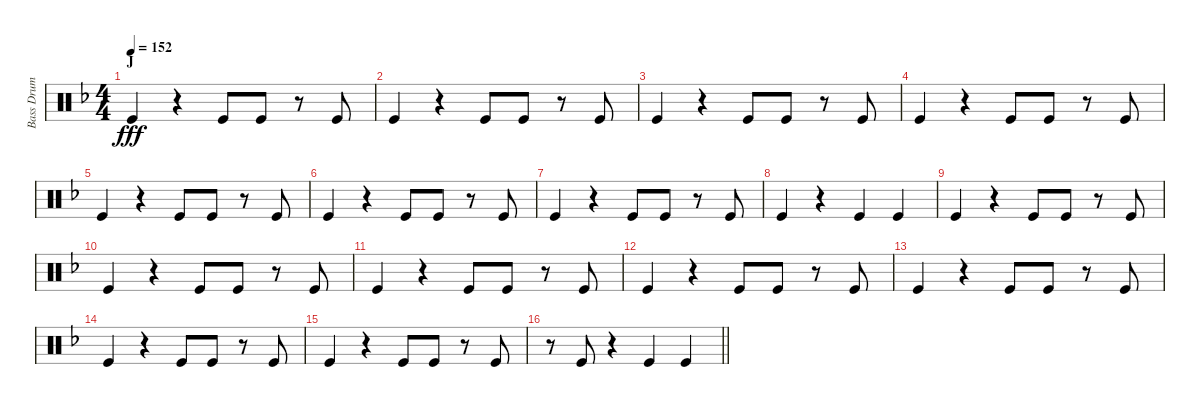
\track ("Bass Drum" "Bass Drum") {instrument percussion}
\staff {score}
\articulation defaults
\ts (4 4)
\section ("" "J")
\tempo 152
\clef neutral
\ks f "Kick (hit)".4{dy fff}
r.4 "Kick (hit)".8 "Kick (hit)".8 r.8 "Kick (hit)".8 |
"Kick (hit)".4 r.4 "Kick (hit)".8 "Kick (hit)".8 r.8 "Kick (hit)".8 |
"Kick (hit)".4 r.4 "Kick (hit)".8 "Kick (hit)".8 r.8 "Kick (hit)".8 |
"Kick (hit)".4 r.4 "Kick (hit)".8 "Kick (hit)".8 r.8 "Kick (hit)".8 |
"Kick (hit)".4 r.4 "Kick (hit)".8 "Kick (hit)".8 r.8 "Kick (hit)".8 |
"Kick (hit)".4 r.4 "Kick (hit)".8 "Kick (hit)".8 r.8 "Kick (hit)".8 |
"Kick (hit)".4 r.4 "Kick (hit)".8 "Kick (hit)".8 r.8 "Kick (hit)".8 |
"Kick (hit)".4 r.4 "Kick (hit)".4 "Kick (hit)".4 |
"Kick (hit)".4 r.4 "Kick (hit)".8 "Kick (hit)".8 r.8 "Kick (hit)".8 |
"Kick (hit)".4 r.4 "Kick (hit)".8 "Kick (hit)".8 r.8 "Kick (hit)".8 |
"Kick (hit)".4 r.4 "Kick (hit)".8 "Kick (hit)".8 r.8 "Kick (hit)".8 |
"Kick (hit)".4 r.4 "Kick (hit)".8 "Kick (hit)".8 r.8 "Kick (hit)".8 |
"Kick (hit)".4 r.4 "Kick (hit)".8 "Kick (hit)".8 r.8 "Kick (hit)".8 |
"Kick (hit)".4 r.4 "Kick (hit)".8 "Kick (hit)".8 r.8 "Kick (hit)".8 |
"Kick (hit)".4 r.4 "Kick (hit)".8 "Kick (hit)".8 r.8 "Kick (hit)".8 |
\barLineRight lightlight
r.8 "Kick (hit)".8 r.4 "Kick (hit)".4 "Kick (hit)".4
